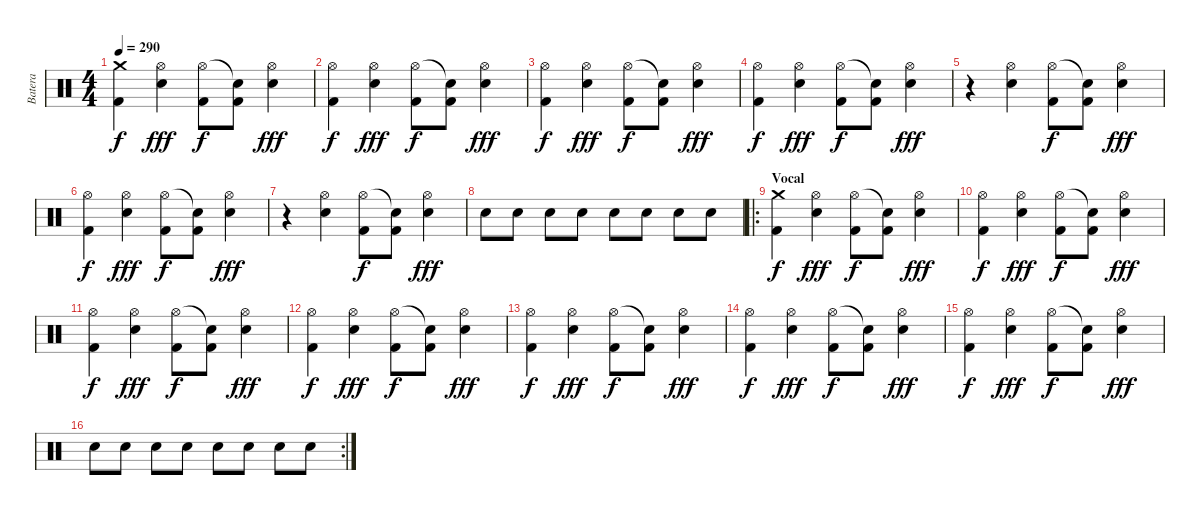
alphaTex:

\track ("Batera" "Batera") {instrument percussion}
\staff {score}
\articulation defaults
\ts (4 4)
\tempo 290
\clef neutral
\ks c
("Crash medium (hit)" "Kick (hit) 2").4{dy f} ("Hi-Hat (open)" "Electric Snare (hit)").4{dy fff} ("Hi-Hat (open)" "Kick (hit) 2").8{dy f} ("Snare (hit)"{t} "Kick (hit) 2").8 ("Hi-Hat (open)" "Electric Snare (hit)").4{dy fff} |
("Hi-Hat (open)" "Kick (hit) 2").4{dy f} ("Hi-Hat (open)" "Electric Snare (hit)").4{dy fff} ("Hi-Hat (open)" "Kick (hit) 2").8{dy f} ("Snare (hit)"{t} "Kick (hit) 2").8 ("Hi-Hat (open)" "Electric Snare (hit)").4{dy fff} |
("Hi-Hat (open)" "Kick (hit) 2").4{dy f} ("Hi-Hat (open)" "Electric Snare (hit)").4{dy fff} ("Hi-Hat (open)" "Kick (hit) 2").8{dy f} ("Snare (hit)"{t} "Kick (hit) 2").8 ("Hi-Hat (open)" "Electric Snare (hit)").4{dy fff} |
("Hi-Hat (open)" "Kick (hit) 2").4{dy f} ("Hi-Hat (open)" "Electric Snare (hit)").4{dy fff} ("Hi-Hat (open)" "Kick (hit) 2").8{dy f} ("Snare (hit)"{t} "Kick (hit) 2").8 ("Hi-Hat (open)" "Electric Snare (hit)").4{dy fff} |
r.4 ("Hi-Hat (open)" "Electric Snare (hit)").4 ("Hi-Hat (open)" "Kick (hit) 2").8{dy f} ("Snare (hit)"{t} "Kick (hit) 2").8 ("Hi-Hat (open)" "Electric Snare (hit)").4{dy fff} |
("Hi-Hat (open)" "Kick (hit) 2").4{dy f} ("Hi-Hat (open)" "Electric Snare (hit)").4{dy fff} ("Hi-Hat (open)" "Kick (hit) 2").8{dy f} ("Snare (hit)"{t} "Kick (hit) 2").8 ("Hi-Hat (open)" "Electric Snare (hit)").4{dy fff} |
r.4 ("Hi-Hat (open)" "Electric Snare (hit)").4 ("Hi-Hat (open)" "Kick (hit) 2").8{dy f} ("Snare (hit)"{t} "Kick (hit) 2").8 ("Hi-Hat (open)" "Electric Snare (hit)").4{dy fff} |
"Electric Snare (hit)".8 "Electric Snare (hit)".8 "Electric Snare (hit)".8 "Electric Snare (hit)".8 "Electric Snare (hit)".8 "Electric Snare (hit)".8 "Electric Snare (hit)".8 "Electric Snare (hit)".8 |
\ro
\section ("" "Vocal")
("Crash medium (hit)" "Kick (hit) 2").4{dy f} ("Hi-Hat (open)" "Electric Snare (hit)").4{dy fff} ("Hi-Hat (open)" "Kick (hit) 2").8{dy f} ("Snare (hit)"{t} "Kick (hit) 2").8 ("Hi-Hat (open)" "Electric Snare (hit)").4{dy fff} |
("Hi-Hat (open)" "Kick (hit) 2").4{dy f} ("Hi-Hat (open)" "Electric Snare (hit)").4{dy fff} ("Hi-Hat (open)" "Kick (hit) 2").8{dy f} ("Snare (hit)"{t} "Kick (hit) 2").8 ("Hi-Hat (open)" "Electric Snare (hit)").4{dy fff} |
("Hi-Hat (open)" "Kick (hit) 2").4{dy f} ("Hi-Hat (open)" "Electric Snare (hit)").4{dy fff} ("Hi-Hat (open)" "Kick (hit) 2").8{dy f} ("Snare (hit)"{t} "Kick (hit) 2").8 ("Hi-Hat (open)" "Electric Snare (hit)").4{dy fff} |
("Hi-Hat (open)" "Kick (hit) 2").4{dy f} ("Hi-Hat (open)" "Electric Snare (hit)").4{dy fff} ("Hi-Hat (open)" "Kick (hit) 2").8{dy f} ("Snare (hit)"{t} "Kick (hit) 2").8 ("Hi-Hat (open)" "Electric Snare (hit)").4{dy fff} |
("Hi-Hat (open)" "Kick (hit) 2").4{dy f} ("Hi-Hat (open)" "Electric Snare (hit)").4{dy fff} ("Hi-Hat (open)" "Kick (hit) 2").8{dy f} ("Snare (hit)"{t} "Kick (hit) 2").8 ("Hi-Hat (open)" "Electric Snare (hit)").4{dy fff} |
("Hi-Hat (open)" "Kick (hit) 2").4{dy f} ("Hi-Hat (open)" "Electric Snare (hit)").4{dy fff} ("Hi-Hat (open)" "Kick (hit) 2").8{dy f} ("Snare (hit)"{t} "Kick (hit) 2").8 ("Hi-Hat (open)" "Electric Snare (hit)").4{dy fff} |
("Hi-Hat (open)" "Kick (hit) 2").4{dy f} ("Hi-Hat (open)" "Electric Snare (hit)").4{dy fff} ("Hi-Hat (open)" "Kick (hit) 2").8{dy f} ("Snare (hit)"{t} "Kick (hit) 2").8 ("Hi-Hat (open)" "Electric Snare (hit)").4{dy fff} |
\rc 2 "Electric Snare (hit)".8 "Electric Snare (hit)".8 "Electric Snare (hit)".8 "Electric Snare (hit)".8 "Electric Snare (hit)".8 "Electric Snare (hit)".8 "Electric Snare (hit)".8 "Electric Snare (hit)".8
